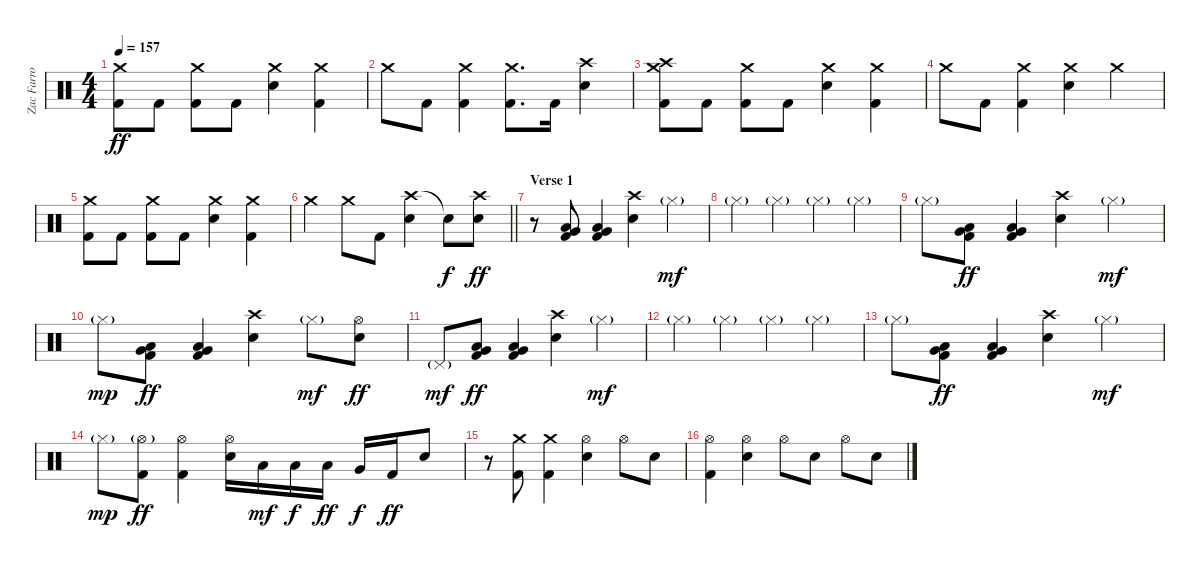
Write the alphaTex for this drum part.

\track ("Zac Farro | Drum" "Zac Farro ") {instrument percussion}
\staff {score}
\articulation defaults
\ts (4 4)
\tempo 157
\clef neutral
\ks c
("Crash medium (hit)" "Kick (hit) 2").8{dy ff} "Kick (hit) 2".8 ("Crash medium (hit)" "Kick (hit) 2").8 "Kick (hit) 2".8 ("Crash medium (hit)" "Electric Snare (hit)").4 ("Crash medium (hit)" "Kick (hit) 2").4 |
"Crash medium (hit)".8 "Kick (hit) 2".8 ("Crash medium (hit)" "Kick (hit) 2").4 ("Crash medium (hit)" "Kick (hit) 2").8{d} "Kick (hit) 2".16 ("Crash high (hit)" "Electric Snare (hit)").4 |
("Crash high (hit)" "Crash medium (hit)" "Kick (hit) 2").8 "Kick (hit) 2".8 ("Crash medium (hit)" "Kick (hit) 2").8 "Kick (hit) 2".8 ("Crash medium (hit)" "Electric Snare (hit)").4 ("Crash medium (hit)" "Kick (hit) 2").4 |
"Crash medium (hit)".8 "Kick (hit) 2".8 ("Crash medium (hit)" "Kick (hit) 2").4 ("Crash medium (hit)" "Electric Snare (hit)").4 "Crash medium (hit)".4 |
("Crash medium (hit)" "Kick (hit) 2").8 "Kick (hit) 2".8 ("Crash medium (hit)" "Kick (hit) 2").8 "Kick (hit) 2".8 ("Crash medium (hit)" "Electric Snare (hit)").4 ("Crash medium (hit)" "Kick (hit) 2").4 |
\barLineRight lightlight "Crash medium (hit)".4 "Crash medium (hit)".8 "Kick (hit) 2".8
("Crash high (hit)" "Electric Snare (hit)").4 "Snare (hit)"{t}.8{dy f} ("Crash high (hit)" "Electric Snare (hit)").8{dy ff} |
\section ("" "Verse 1")
r.8 ("Very Low Tom (hit)" "Low Floor Tom (hit)" "Kick (hit) 2").8 ("Very Low Tom (hit)" "Low Floor Tom (hit)" "Kick (hit) 2").4 ("Crash high (hit)" "Electric Snare (hit)").4 "Hi-Hat (closed)"{g}.4{dy mf} |
"Hi-Hat (closed)"{g}.4 "Hi-Hat (closed)"{g}.4 "Hi-Hat (closed)"{g}.4 "Hi-Hat (closed)"{g}.4 |
"Hi-Hat (closed)"{g}.8 ("Very Low Tom (hit)" "Low Floor Tom (hit)" "Kick (hit) 2").8{dy ff} ("Very Low Tom (hit)" "Low Floor Tom (hit)" "Kick (hit) 2").4 ("Crash high (hit)" "Electric Snare (hit)").4 "Hi-Hat (closed)"{g}.4{dy mf} |
"Hi-Hat (closed)"{g}.8{dy mp} ("Very Low Tom (hit)" "Low Floor Tom (hit)" "Kick (hit) 2").8{dy ff} ("Very Low Tom (hit)" "Low Floor Tom (hit)" "Kick (hit) 2").4 ("Crash high (hit)" "Electric Snare (hit)").4 "Hi-Hat (closed)"{g}.8{dy mf} ("Hi-Hat (open)" "Electric Snare (hit)").8{dy ff} |
"Pedal Hi-Hat (hit)"{g}.8{dy mf} ("Very Low Tom (hit)" "Low Floor Tom (hit)" "Kick (hit) 2").8{dy ff} ("Very Low Tom (hit)" "Low Floor Tom (hit)" "Kick (hit) 2").4 ("Crash high (hit)" "Electric Snare (hit)").4 "Hi-Hat (closed)"{g}.4{dy mf} |
"Hi-Hat (closed)"{g}.4 "Hi-Hat (closed)"{g}.4 "Hi-Hat (closed)"{g}.4 "Hi-Hat (closed)"{g}.4 |
"Hi-Hat (closed)"{g}.8 ("Very Low Tom (hit)" "Low Floor Tom (hit)" "Kick (hit) 2").8{dy ff} ("Very Low Tom (hit)" "Low Floor Tom (hit)" "Kick (hit) 2").4 ("Crash high (hit)" "Electric Snare (hit)").4 "Hi-Hat (closed)"{g}.4{dy mf} |
"Hi-Hat (closed)"{g}.8{dy mp} ("Hi-Hat (open)"{g} "Kick (hit) 2").8{dy ff} ("Hi-Hat (open)" "Kick (hit) 2").4 ("Hi-Hat (open)" "Electric Snare (hit)").16 "Low Tom (hit)".16{dy mf} "Low Tom (hit)".16{dy f} "Low Tom (hit)".16{dy ff} "Very Low Tom (hit)".16{dy f} "Kick (hit) 2".16{dy ff} "Electric Snare (hit)".8 |
r.8 ("Crash medium (hit)" "Kick (hit) 2").8 ("Crash medium (hit)" "Kick (hit) 2").4 ("Hi-Hat (open)" "Electric Snare (hit)").4 "Hi-Hat (open)".8 "Electric Snare (hit)".8 |
("Hi-Hat (open)" "Kick (hit) 2").4 ("Hi-Hat (open)" "Electric Snare (hit)").4 "Hi-Hat (open)".8 "Electric Snare (hit)".8 "Hi-Hat (open)".8 "Electric Snare (hit)".8
